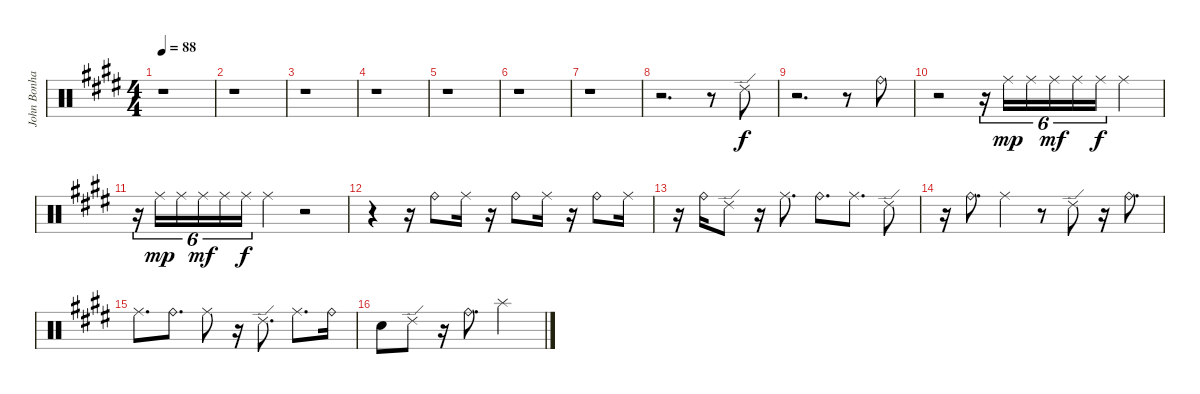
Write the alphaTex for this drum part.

\track ("John Bonham Percusive Kit" "John Bonha") {instrument percussion}
\staff {score}
\articulation defaults
\ts (4 4)
\tempo 88
\clef neutral
\ks e
r.1{dy f} |
r.1 |
r.1 |
r.1 |
r.1 |
r.1 |
r.1 |
r.2{d} r.8 "Ride (edge) 2".8 |
r.2{d} r.8 "Ride (bell)".8 |
r.2 r.16{tu (6 4)} "Ride (middle)".16{tu (6 4) dy mp} "Ride (middle)".16{tu (6 4)} "Ride (middle)".16{tu (6 4) dy mf} "Ride (middle)".16{tu (6 4)} "Ride (middle)".16{tu (6 4) dy f} "Ride (middle)".4 |
r.16{tu (6 4)} "Ride (middle)".16{tu (6 4) dy mp} "Ride (middle)".16{tu (6 4)} "Ride (middle)".16{tu (6 4) dy mf} "Ride (middle)".16{tu (6 4)} "Ride (middle)".16{tu (6 4) dy f} "Ride (middle)".4 r.2 |
r.4 r.16 "Ride (bell)".8 "Ride (middle)".16 r.16 "Ride (bell)".8 "Ride (middle)".16 r.16 "Ride (bell)".8 "Ride (middle)".16 |
r.16 "Ride (bell)".16 "Ride (edge) 2".8 r.16 "Ride (middle)".8{d} "Ride (bell)".8{d} "Ride (middle)".8{d} "Ride (edge) 2".8 |
r.16 "Ride (bell)".8{d} "Ride (middle)".4 r.8 "Ride (edge) 2".8 r.16 "Ride (bell)".8{d} |
"Ride (middle)".8{d} "Ride (bell)".8{d} "Ride (middle)".8 r.16 "Ride (edge) 2".8{d} "Ride (middle)".8{d} "Ride (bell)".16 |
"Snare (hit)".8 "Ride (edge) 2".8 r.16 "Ride (bell)".8{d} "Splash (hit)".2
